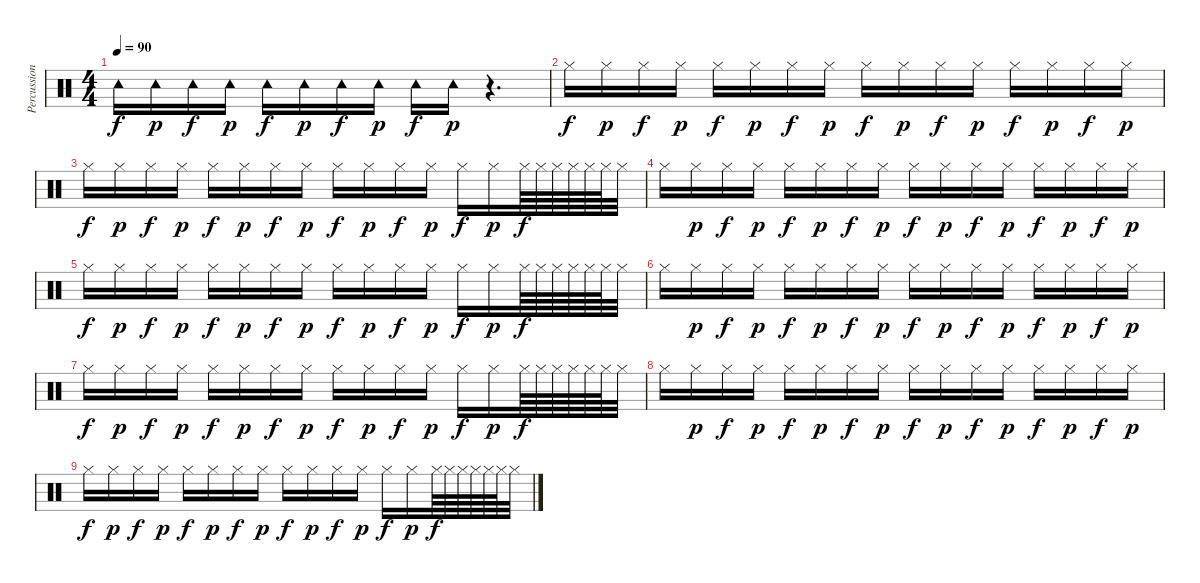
\track ("Percussion" "Percussion") {instrument percussion}
\staff {score}
\articulation defaults
\ts (4 4)
\tempo 90
\clef neutral
\ks c "Tambourine (hit)".16{dy f} "Tambourine (hit)".16{dy p} "Tambourine (hit)".16{dy f} "Tambourine (hit)".16{dy p} "Tambourine (hit)".16{dy f} "Tambourine (hit)".16{dy p} "Tambourine (hit)".16{dy f} "Tambourine (hit)".16{dy p} "Tambourine (hit)".16{dy f} "Tambourine (hit)".16{dy p}
r.4{d} |
"Hi-Hat (closed)".16{dy f} "Hi-Hat (closed)".16{dy p} "Hi-Hat (closed)".16{dy f} "Hi-Hat (closed)".16{dy p} "Hi-Hat (closed)".16{dy f} "Hi-Hat (closed)".16{dy p} "Hi-Hat (closed)".16{dy f} "Hi-Hat (closed)".16{dy p} "Hi-Hat (closed)".16{dy f} "Hi-Hat (closed)".16{dy p} "Hi-Hat (closed)".16{dy f} "Hi-Hat (closed)".16{dy p} "Hi-Hat (closed)".16{dy f} "Hi-Hat (closed)".16{dy p} "Hi-Hat (closed)".16{dy f} "Hi-Hat (closed)".16{dy p} |
"Hi-Hat (closed)".16{dy f} "Hi-Hat (closed)".16{dy p} "Hi-Hat (closed)".16{dy f} "Hi-Hat (closed)".16{dy p} "Hi-Hat (closed)".16{dy f} "Hi-Hat (closed)".16{dy p} "Hi-Hat (closed)".16{dy f} "Hi-Hat (closed)".16{dy p} "Hi-Hat (closed)".16{dy f} "Hi-Hat (closed)".16{dy p} "Hi-Hat (closed)".16{dy f} "Hi-Hat (closed)".16{dy p} "Hi-Hat (closed)".16{dy f} "Hi-Hat (closed)".16{dy p} "Hi-Hat (closed)".64{dy f} "Hi-Hat (closed)".64 "Hi-Hat (closed)".64 "Hi-Hat (closed)".64 "Hi-Hat (closed)".64 "Hi-Hat (closed)".64 "Hi-Hat (closed)".32 |
"Hi-Hat (closed)".16 "Hi-Hat (closed)".16{dy p} "Hi-Hat (closed)".16{dy f} "Hi-Hat (closed)".16{dy p} "Hi-Hat (closed)".16{dy f} "Hi-Hat (closed)".16{dy p} "Hi-Hat (closed)".16{dy f} "Hi-Hat (closed)".16{dy p} "Hi-Hat (closed)".16{dy f} "Hi-Hat (closed)".16{dy p} "Hi-Hat (closed)".16{dy f} "Hi-Hat (closed)".16{dy p} "Hi-Hat (closed)".16{dy f} "Hi-Hat (closed)".16{dy p} "Hi-Hat (closed)".16{dy f} "Hi-Hat (closed)".16{dy p} |
"Hi-Hat (closed)".16{dy f} "Hi-Hat (closed)".16{dy p} "Hi-Hat (closed)".16{dy f} "Hi-Hat (closed)".16{dy p} "Hi-Hat (closed)".16{dy f} "Hi-Hat (closed)".16{dy p} "Hi-Hat (closed)".16{dy f} "Hi-Hat (closed)".16{dy p} "Hi-Hat (closed)".16{dy f} "Hi-Hat (closed)".16{dy p} "Hi-Hat (closed)".16{dy f} "Hi-Hat (closed)".16{dy p} "Hi-Hat (closed)".16{dy f} "Hi-Hat (closed)".16{dy p} "Hi-Hat (closed)".64{dy f} "Hi-Hat (closed)".64 "Hi-Hat (closed)".64 "Hi-Hat (closed)".64 "Hi-Hat (closed)".64 "Hi-Hat (closed)".64 "Hi-Hat (closed)".32 |
"Hi-Hat (closed)".16 "Hi-Hat (closed)".16{dy p} "Hi-Hat (closed)".16{dy f} "Hi-Hat (closed)".16{dy p} "Hi-Hat (closed)".16{dy f} "Hi-Hat (closed)".16{dy p} "Hi-Hat (closed)".16{dy f} "Hi-Hat (closed)".16{dy p} "Hi-Hat (closed)".16{dy f} "Hi-Hat (closed)".16{dy p} "Hi-Hat (closed)".16{dy f} "Hi-Hat (closed)".16{dy p} "Hi-Hat (closed)".16{dy f} "Hi-Hat (closed)".16{dy p} "Hi-Hat (closed)".16{dy f} "Hi-Hat (closed)".16{dy p} |
"Hi-Hat (closed)".16{dy f} "Hi-Hat (closed)".16{dy p} "Hi-Hat (closed)".16{dy f} "Hi-Hat (closed)".16{dy p} "Hi-Hat (closed)".16{dy f} "Hi-Hat (closed)".16{dy p} "Hi-Hat (closed)".16{dy f} "Hi-Hat (closed)".16{dy p} "Hi-Hat (closed)".16{dy f} "Hi-Hat (closed)".16{dy p} "Hi-Hat (closed)".16{dy f} "Hi-Hat (closed)".16{dy p} "Hi-Hat (closed)".16{dy f} "Hi-Hat (closed)".16{dy p} "Hi-Hat (closed)".64{dy f} "Hi-Hat (closed)".64 "Hi-Hat (closed)".64 "Hi-Hat (closed)".64 "Hi-Hat (closed)".64 "Hi-Hat (closed)".64 "Hi-Hat (closed)".32 |
"Hi-Hat (closed)".16 "Hi-Hat (closed)".16{dy p} "Hi-Hat (closed)".16{dy f} "Hi-Hat (closed)".16{dy p} "Hi-Hat (closed)".16{dy f} "Hi-Hat (closed)".16{dy p} "Hi-Hat (closed)".16{dy f} "Hi-Hat (closed)".16{dy p} "Hi-Hat (closed)".16{dy f} "Hi-Hat (closed)".16{dy p} "Hi-Hat (closed)".16{dy f} "Hi-Hat (closed)".16{dy p} "Hi-Hat (closed)".16{dy f} "Hi-Hat (closed)".16{dy p} "Hi-Hat (closed)".16{dy f} "Hi-Hat (closed)".16{dy p} |
"Hi-Hat (closed)".16{dy f} "Hi-Hat (closed)".16{dy p} "Hi-Hat (closed)".16{dy f} "Hi-Hat (closed)".16{dy p} "Hi-Hat (closed)".16{dy f} "Hi-Hat (closed)".16{dy p} "Hi-Hat (closed)".16{dy f} "Hi-Hat (closed)".16{dy p} "Hi-Hat (closed)".16{dy f} "Hi-Hat (closed)".16{dy p} "Hi-Hat (closed)".16{dy f} "Hi-Hat (closed)".16{dy p} "Hi-Hat (closed)".16{dy f} "Hi-Hat (closed)".16{dy p} "Hi-Hat (closed)".64{dy f} "Hi-Hat (closed)".64 "Hi-Hat (closed)".64 "Hi-Hat (closed)".64 "Hi-Hat (closed)".64 "Hi-Hat (closed)".64 "Hi-Hat (closed)".32
